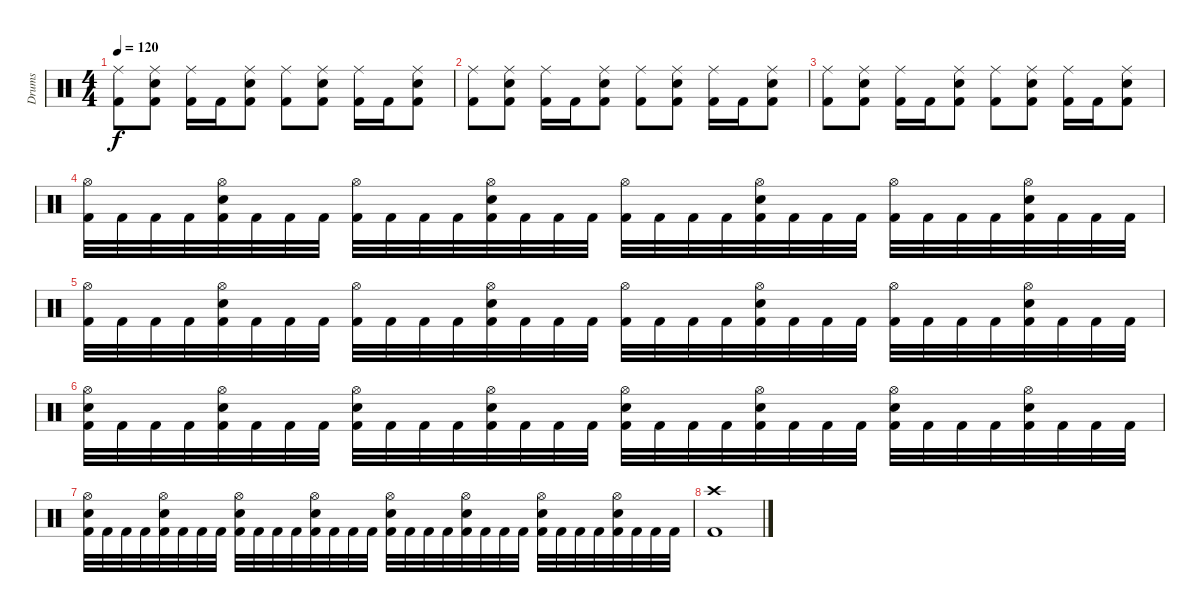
\track ("Drums" "Drums") {instrument percussion}
\staff {score}
\articulation defaults
\ts (4 4)
\tempo 120
\clef neutral
\ks c
("Ride (middle)" "Kick (hit) 2").8{dy f} ("Ride (middle)" "Electric Snare (hit)" "Kick (hit) 2").8 ("Ride (middle)" "Kick (hit) 2").16 "Kick (hit) 2".16 ("Ride (middle)" "Electric Snare (hit)" "Kick (hit) 2").8 ("Ride (middle)" "Kick (hit) 2").8 ("Ride (middle)" "Electric Snare (hit)" "Kick (hit) 2").8 ("Ride (middle)" "Kick (hit) 2").16 "Kick (hit) 2".16 ("Ride (middle)" "Electric Snare (hit)" "Kick (hit) 2").8 |
("Ride (middle)" "Kick (hit) 2").8 ("Ride (middle)" "Electric Snare (hit)" "Kick (hit) 2").8 ("Ride (middle)" "Kick (hit) 2").16 "Kick (hit) 2".16 ("Ride (middle)" "Electric Snare (hit)" "Kick (hit) 2").8 ("Ride (middle)" "Kick (hit) 2").8 ("Ride (middle)" "Electric Snare (hit)" "Kick (hit) 2").8 ("Ride (middle)" "Kick (hit) 2").16 "Kick (hit) 2".16 ("Ride (middle)" "Electric Snare (hit)" "Kick (hit) 2").8 |
("Ride (middle)" "Kick (hit) 2").8 ("Ride (middle)" "Electric Snare (hit)" "Kick (hit) 2").8 ("Ride (middle)" "Kick (hit) 2").16 "Kick (hit) 2".16 ("Ride (middle)" "Electric Snare (hit)" "Kick (hit) 2").8 ("Ride (middle)" "Kick (hit) 2").8 ("Ride (middle)" "Electric Snare (hit)" "Kick (hit) 2").8 ("Ride (middle)" "Kick (hit) 2").16 "Kick (hit) 2".16 ("Ride (middle)" "Electric Snare (hit)" "Kick (hit) 2").8 |
("Hi-Hat (open)" "Kick (hit) 2").32 "Kick (hit) 2".32 "Kick (hit) 2".32 "Kick (hit) 2".32 ("Hi-Hat (open)" "Electric Snare (hit)" "Kick (hit) 2").32 "Kick (hit) 2".32 "Kick (hit) 2".32 "Kick (hit) 2".32 ("Hi-Hat (open)" "Kick (hit) 2").32 "Kick (hit) 2".32 "Kick (hit) 2".32 "Kick (hit) 2".32 ("Hi-Hat (open)" "Electric Snare (hit)" "Kick (hit) 2").32 "Kick (hit) 2".32 "Kick (hit) 2".32 "Kick (hit) 2".32 ("Hi-Hat (open)" "Kick (hit) 2").32 "Kick (hit) 2".32 "Kick (hit) 2".32 "Kick (hit) 2".32 ("Hi-Hat (open)" "Electric Snare (hit)" "Kick (hit) 2").32 "Kick (hit) 2".32 "Kick (hit) 2".32 "Kick (hit) 2".32 ("Hi-Hat (open)" "Kick (hit) 2").32 "Kick (hit) 2".32 "Kick (hit) 2".32 "Kick (hit) 2".32 ("Hi-Hat (open)" "Electric Snare (hit)" "Kick (hit) 2").32 "Kick (hit) 2".32 "Kick (hit) 2".32 "Kick (hit) 2".32 |
("Hi-Hat (open)" "Kick (hit) 2").32 "Kick (hit) 2".32 "Kick (hit) 2".32 "Kick (hit) 2".32 ("Hi-Hat (open)" "Electric Snare (hit)" "Kick (hit) 2").32 "Kick (hit) 2".32 "Kick (hit) 2".32 "Kick (hit) 2".32 ("Hi-Hat (open)" "Kick (hit) 2").32 "Kick (hit) 2".32 "Kick (hit) 2".32 "Kick (hit) 2".32 ("Hi-Hat (open)" "Electric Snare (hit)" "Kick (hit) 2").32 "Kick (hit) 2".32 "Kick (hit) 2".32 "Kick (hit) 2".32 ("Hi-Hat (open)" "Kick (hit) 2").32 "Kick (hit) 2".32 "Kick (hit) 2".32 "Kick (hit) 2".32 ("Hi-Hat (open)" "Electric Snare (hit)" "Kick (hit) 2").32 "Kick (hit) 2".32 "Kick (hit) 2".32 "Kick (hit) 2".32 ("Hi-Hat (open)" "Kick (hit) 2").32 "Kick (hit) 2".32 "Kick (hit) 2".32 "Kick (hit) 2".32 ("Hi-Hat (open)" "Electric Snare (hit)" "Kick (hit) 2").32 "Kick (hit) 2".32 "Kick (hit) 2".32 "Kick (hit) 2".32 |
("Hi-Hat (open)" "Electric Snare (hit)" "Kick (hit) 2").32 "Kick (hit) 2".32 "Kick (hit) 2".32 "Kick (hit) 2".32 ("Hi-Hat (open)" "Electric Snare (hit)" "Kick (hit) 2").32 "Kick (hit) 2".32 "Kick (hit) 2".32 "Kick (hit) 2".32 ("Hi-Hat (open)" "Electric Snare (hit)" "Kick (hit) 2").32 "Kick (hit) 2".32 "Kick (hit) 2".32 "Kick (hit) 2".32 ("Hi-Hat (open)" "Electric Snare (hit)" "Kick (hit) 2").32 "Kick (hit) 2".32 "Kick (hit) 2".32 "Kick (hit) 2".32 ("Hi-Hat (open)" "Electric Snare (hit)" "Kick (hit) 2").32 "Kick (hit) 2".32 "Kick (hit) 2".32 "Kick (hit) 2".32 ("Hi-Hat (open)" "Electric Snare (hit)" "Kick (hit) 2").32 "Kick (hit) 2".32 "Kick (hit) 2".32 "Kick (hit) 2".32 ("Hi-Hat (open)" "Electric Snare (hit)" "Kick (hit) 2").32 "Kick (hit) 2".32 "Kick (hit) 2".32 "Kick (hit) 2".32 ("Hi-Hat (open)" "Electric Snare (hit)" "Kick (hit) 2").32 "Kick (hit) 2".32 "Kick (hit) 2".32 "Kick (hit) 2".32 |
("Hi-Hat (open)" "Electric Snare (hit)" "Kick (hit) 2").32 "Kick (hit) 2".32 "Kick (hit) 2".32 "Kick (hit) 2".32 ("Hi-Hat (open)" "Electric Snare (hit)" "Kick (hit) 2").32 "Kick (hit) 2".32 "Kick (hit) 2".32 "Kick (hit) 2".32 ("Hi-Hat (open)" "Electric Snare (hit)" "Kick (hit) 2").32 "Kick (hit) 2".32 "Kick (hit) 2".32 "Kick (hit) 2".32 ("Hi-Hat (open)" "Electric Snare (hit)" "Kick (hit) 2").32 "Kick (hit) 2".32 "Kick (hit) 2".32 "Kick (hit) 2".32 ("Hi-Hat (open)" "Electric Snare (hit)" "Kick (hit) 2").32 "Kick (hit) 2".32 "Kick (hit) 2".32 "Kick (hit) 2".32 ("Hi-Hat (open)" "Electric Snare (hit)" "Kick (hit) 2").32 "Kick (hit) 2".32 "Kick (hit) 2".32 "Kick (hit) 2".32 ("Hi-Hat (open)" "Electric Snare (hit)" "Kick (hit) 2").32 "Kick (hit) 2".32 "Kick (hit) 2".32 "Kick (hit) 2".32 ("Hi-Hat (open)" "Electric Snare (hit)" "Kick (hit) 2").32 "Kick (hit) 2".32 "Kick (hit) 2".32 "Kick (hit) 2".32 |
("Crash high (hit)" "Kick (hit) 2").1
